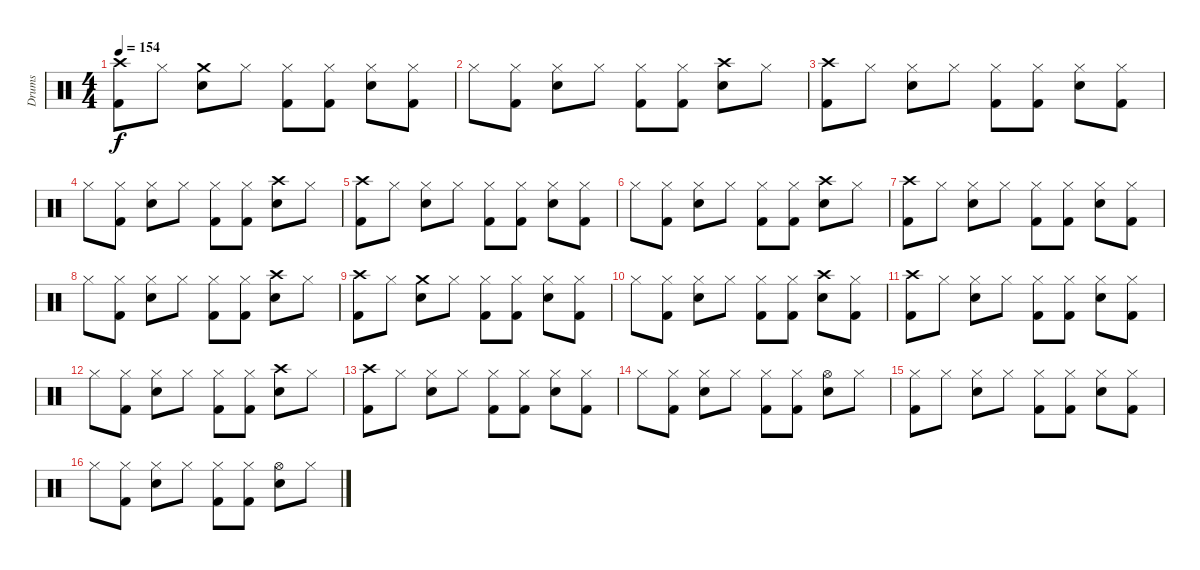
\track ("Drums" "Drums") {instrument percussion}
\staff {score}
\articulation defaults
\ts (4 4)
\tempo 154
\clef neutral
\ks c
("Crash high (hit)" "Kick (hit) 2").8{dy f} "Hi-Hat (closed)".8 ("Crash medium (hit)" "Snare (hit) 2").8 "Hi-Hat (closed)".8 ("Hi-Hat (closed)" "Kick (hit) 2").8 ("Hi-Hat (closed)" "Kick (hit) 2").8 ("Hi-Hat (closed)" "Snare (hit) 2").8 ("Hi-Hat (closed)" "Kick (hit) 2").8 |
"Hi-Hat (closed)".8 ("Hi-Hat (closed)" "Kick (hit) 2").8 ("Hi-Hat (closed)" "Snare (hit) 2").8 "Hi-Hat (closed)".8 ("Hi-Hat (closed)" "Kick (hit) 2").8 ("Hi-Hat (closed)" "Kick (hit) 2").8 ("Crash high (hit)" "Snare (hit) 2").8 "Hi-Hat (closed)".8 |
("Crash high (hit)" "Kick (hit) 2").8 "Hi-Hat (closed)".8 ("Hi-Hat (closed)" "Snare (hit) 2").8 "Hi-Hat (closed)".8 ("Hi-Hat (closed)" "Kick (hit) 2").8 ("Hi-Hat (closed)" "Kick (hit) 2").8 ("Hi-Hat (closed)" "Snare (hit) 2").8 ("Hi-Hat (closed)" "Kick (hit) 2").8 |
"Hi-Hat (closed)".8 ("Hi-Hat (closed)" "Kick (hit) 2").8 ("Hi-Hat (closed)" "Snare (hit) 2").8 "Hi-Hat (closed)".8 ("Hi-Hat (closed)" "Kick (hit) 2").8 ("Hi-Hat (closed)" "Kick (hit) 2").8 ("Crash high (hit)" "Snare (hit) 2").8 "Hi-Hat (closed)".8 |
("Crash high (hit)" "Kick (hit) 2").8 "Hi-Hat (closed)".8 ("Hi-Hat (closed)" "Snare (hit) 2").8 "Hi-Hat (closed)".8 ("Hi-Hat (closed)" "Kick (hit) 2").8 ("Hi-Hat (closed)" "Kick (hit) 2").8 ("Hi-Hat (closed)" "Snare (hit) 2").8 ("Hi-Hat (closed)" "Kick (hit) 2").8 |
"Hi-Hat (closed)".8 ("Hi-Hat (closed)" "Kick (hit) 2").8 ("Hi-Hat (closed)" "Snare (hit) 2").8 "Hi-Hat (closed)".8 ("Hi-Hat (closed)" "Kick (hit) 2").8 ("Hi-Hat (closed)" "Kick (hit) 2").8 ("Crash high (hit)" "Snare (hit) 2").8 "Hi-Hat (closed)".8 |
("Crash high (hit)" "Kick (hit) 2").8 "Hi-Hat (closed)".8 ("Hi-Hat (closed)" "Snare (hit) 2").8 "Hi-Hat (closed)".8 ("Hi-Hat (closed)" "Kick (hit) 2").8 ("Hi-Hat (closed)" "Kick (hit) 2").8 ("Hi-Hat (closed)" "Snare (hit) 2").8 ("Hi-Hat (closed)" "Kick (hit) 2").8 |
"Hi-Hat (closed)".8 ("Hi-Hat (closed)" "Kick (hit) 2").8 ("Hi-Hat (closed)" "Snare (hit) 2").8 "Hi-Hat (closed)".8 ("Hi-Hat (closed)" "Kick (hit) 2").8 ("Hi-Hat (closed)" "Kick (hit) 2").8 ("Crash high (hit)" "Snare (hit) 2").8 "Hi-Hat (closed)".8 |
("Crash high (hit)" "Kick (hit) 2").8 "Hi-Hat (closed)".8 ("Crash medium (hit)" "Snare (hit) 2").8 "Hi-Hat (closed)".8 ("Hi-Hat (closed)" "Kick (hit) 2").8 ("Hi-Hat (closed)" "Kick (hit) 2").8 ("Hi-Hat (closed)" "Snare (hit) 2").8 ("Hi-Hat (closed)" "Kick (hit) 2").8 |
"Hi-Hat (closed)".8 ("Hi-Hat (closed)" "Kick (hit) 2").8 ("Hi-Hat (closed)" "Snare (hit) 2").8 "Hi-Hat (closed)".8 ("Hi-Hat (closed)" "Kick (hit) 2").8 ("Hi-Hat (closed)" "Kick (hit) 2").8 ("Crash high (hit)" "Snare (hit) 2").8 ("Hi-Hat (closed)" "Kick (hit) 2").8 |
("Crash high (hit)" "Kick (hit) 2").8 "Hi-Hat (closed)".8 ("Hi-Hat (closed)" "Snare (hit) 2").8 "Hi-Hat (closed)".8 ("Hi-Hat (closed)" "Kick (hit) 2").8 ("Hi-Hat (closed)" "Kick (hit) 2").8 ("Hi-Hat (closed)" "Snare (hit) 2").8 ("Hi-Hat (closed)" "Kick (hit) 2").8 |
"Hi-Hat (closed)".8 ("Hi-Hat (closed)" "Kick (hit) 2").8 ("Hi-Hat (closed)" "Snare (hit) 2").8 "Hi-Hat (closed)".8 ("Hi-Hat (closed)" "Kick (hit) 2").8 ("Hi-Hat (closed)" "Kick (hit) 2").8 ("Crash high (hit)" "Snare (hit) 2").8 "Hi-Hat (closed)".8 |
("Crash high (hit)" "Kick (hit) 2").8 "Hi-Hat (closed)".8 ("Hi-Hat (closed)" "Snare (hit) 2").8 "Hi-Hat (closed)".8 ("Hi-Hat (closed)" "Kick (hit) 2").8 ("Hi-Hat (closed)" "Kick (hit) 2").8 ("Hi-Hat (closed)" "Snare (hit) 2").8 ("Hi-Hat (closed)" "Kick (hit) 2").8 |
"Hi-Hat (closed)".8 ("Hi-Hat (closed)" "Kick (hit) 2").8 ("Hi-Hat (closed)" "Snare (hit) 2").8 "Hi-Hat (closed)".8 ("Hi-Hat (closed)" "Kick (hit) 2").8 ("Hi-Hat (closed)" "Kick (hit) 2").8 ("Hi-Hat (open)" "Snare (hit) 2").8 "Hi-Hat (closed)".8 |
("Hi-Hat (closed)" "Kick (hit) 2").8 "Hi-Hat (closed)".8 ("Hi-Hat (closed)" "Snare (hit) 2").8 "Hi-Hat (closed)".8 ("Hi-Hat (closed)" "Kick (hit) 2").8 ("Hi-Hat (closed)" "Kick (hit) 2").8 ("Hi-Hat (closed)" "Snare (hit) 2").8 ("Hi-Hat (closed)" "Kick (hit) 2").8 |
"Hi-Hat (closed)".8 ("Hi-Hat (closed)" "Kick (hit) 2").8 ("Hi-Hat (closed)" "Snare (hit) 2").8 "Hi-Hat (closed)".8 ("Hi-Hat (closed)" "Kick (hit) 2").8 ("Hi-Hat (closed)" "Kick (hit) 2").8 ("Hi-Hat (open)" "Snare (hit) 2").8 "Hi-Hat (closed)".8
